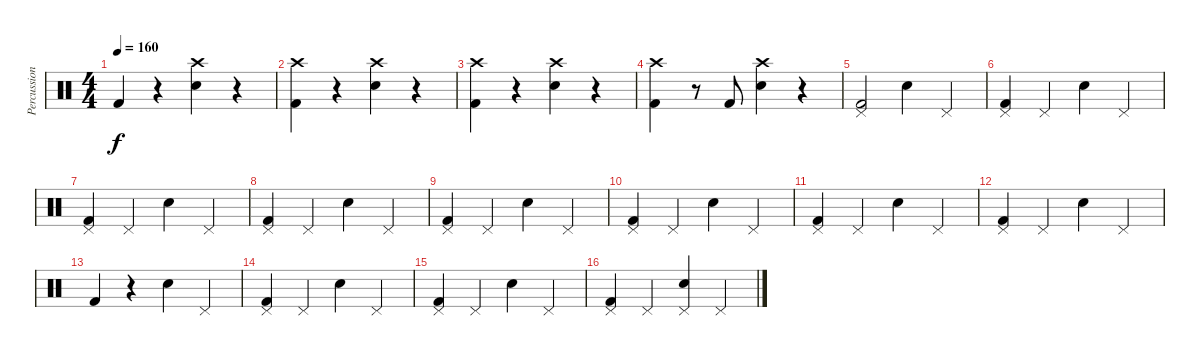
\track ("Percussion" "Percussion") {instrument percussion}
\staff {score}
\articulation defaults
\ts (4 4)
\tempo 160
\clef neutral
\ks c "Kick (hit) 2".4{dy f}
r.4 ("Crash high (hit)" "Snare (hit) 2").4 r.4 |
("Crash high (hit)" "Kick (hit) 2").4 r.4 ("Crash high (hit)" "Snare (hit) 2").4 r.4 |
("Crash high (hit)" "Kick (hit) 2").4 r.4 ("Crash high (hit)" "Snare (hit) 2").4 r.4 |
("Crash high (hit)" "Kick (hit) 2").4 r.8 "Kick (hit) 2".8 ("Crash high (hit)" "Snare (hit) 2").4 r.4 |
("Pedal Hi-Hat (hit)" "Kick (hit) 2").2 "Snare (hit) 2".4 "Pedal Hi-Hat (hit)".4 |
("Pedal Hi-Hat (hit)" "Kick (hit) 2").4 "Pedal Hi-Hat (hit)".4 "Snare (hit) 2".4 "Pedal Hi-Hat (hit)".4 |
("Pedal Hi-Hat (hit)" "Kick (hit) 2").4 "Pedal Hi-Hat (hit)".4 "Snare (hit) 2".4 "Pedal Hi-Hat (hit)".4 |
("Pedal Hi-Hat (hit)" "Kick (hit) 2").4 "Pedal Hi-Hat (hit)".4 "Snare (hit) 2".4 "Pedal Hi-Hat (hit)".4 |
("Pedal Hi-Hat (hit)" "Kick (hit) 2").4 "Pedal Hi-Hat (hit)".4 "Snare (hit) 2".4 "Pedal Hi-Hat (hit)".4 |
("Pedal Hi-Hat (hit)" "Kick (hit) 2").4 "Pedal Hi-Hat (hit)".4 "Snare (hit) 2".4 "Pedal Hi-Hat (hit)".4 |
("Pedal Hi-Hat (hit)" "Kick (hit) 2").4 "Pedal Hi-Hat (hit)".4 "Snare (hit) 2".4 "Pedal Hi-Hat (hit)".4 |
("Pedal Hi-Hat (hit)" "Kick (hit) 2").4 "Pedal Hi-Hat (hit)".4 "Snare (hit) 2".4 "Pedal Hi-Hat (hit)".4 |
"Kick (hit) 2".4 r.4 "Snare (hit) 2".4 "Pedal Hi-Hat (hit)".4 |
("Pedal Hi-Hat (hit)" "Kick (hit) 2").4 "Pedal Hi-Hat (hit)".4 "Snare (hit) 2".4 "Pedal Hi-Hat (hit)".4 |
("Pedal Hi-Hat (hit)" "Kick (hit) 2").4 "Pedal Hi-Hat (hit)".4 "Snare (hit) 2".4 "Pedal Hi-Hat (hit)".4 |
("Pedal Hi-Hat (hit)" "Kick (hit) 2").4 "Pedal Hi-Hat (hit)".4 ("Pedal Hi-Hat (hit)" "Snare (hit) 2").4 "Pedal Hi-Hat (hit)".4
